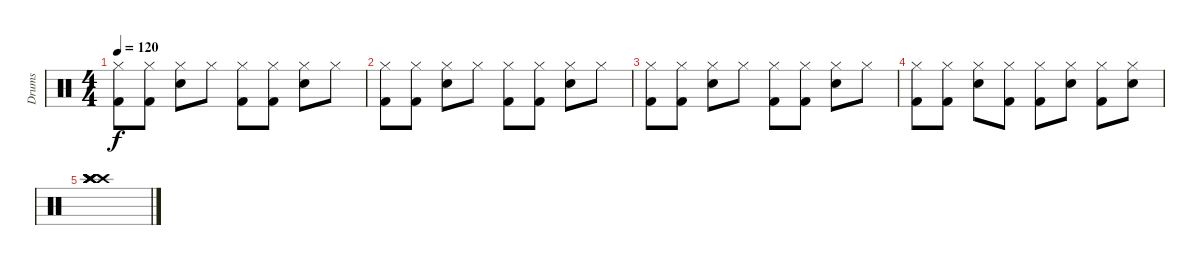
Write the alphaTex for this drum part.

\track ("Drums" "Drums") {instrument percussion}
\staff {score}
\articulation defaults
\ts (4 4)
\tempo 120
\clef neutral
\ks c
("Hi-Hat (closed)" "Kick (hit) 2").8{dy f} ("Hi-Hat (closed)" "Kick (hit) 2").8 ("Hi-Hat (closed)" "Electric Snare (hit)").8 "Hi-Hat (closed)".8 ("Hi-Hat (closed)" "Kick (hit) 2").8 ("Hi-Hat (closed)" "Kick (hit) 2").8 ("Hi-Hat (closed)" "Electric Snare (hit)").8 "Hi-Hat (closed)".8 |
("Hi-Hat (closed)" "Kick (hit) 2").8 ("Hi-Hat (closed)" "Kick (hit) 2").8 ("Hi-Hat (closed)" "Electric Snare (hit)").8 "Hi-Hat (closed)".8 ("Hi-Hat (closed)" "Kick (hit) 2").8 ("Hi-Hat (closed)" "Kick (hit) 2").8 ("Hi-Hat (closed)" "Electric Snare (hit)").8 "Hi-Hat (closed)".8 |
("Hi-Hat (closed)" "Kick (hit) 2").8 ("Hi-Hat (closed)" "Kick (hit) 2").8 ("Hi-Hat (closed)" "Electric Snare (hit)").8 "Hi-Hat (closed)".8 ("Hi-Hat (closed)" "Kick (hit) 2").8 ("Hi-Hat (closed)" "Kick (hit) 2").8 ("Hi-Hat (closed)" "Electric Snare (hit)").8 "Hi-Hat (closed)".8 |
("Hi-Hat (closed)" "Kick (hit) 2").8 ("Hi-Hat (closed)" "Kick (hit) 2").8 ("Hi-Hat (closed)" "Electric Snare (hit)").8 ("Hi-Hat (closed)" "Kick (hit) 2").8 ("Hi-Hat (closed)" "Kick (hit) 2").8 ("Hi-Hat (closed)" "Electric Snare (hit)").8 ("Hi-Hat (closed)" "Kick (hit) 2").8 ("Hi-Hat (closed)" "Electric Snare (hit)").8 |
("Crash high (hit)" "Crash high (hit)" "Crash high (hit)" "Crash high (hit)" "Crash high (hit)" "Crash high (hit)").1
